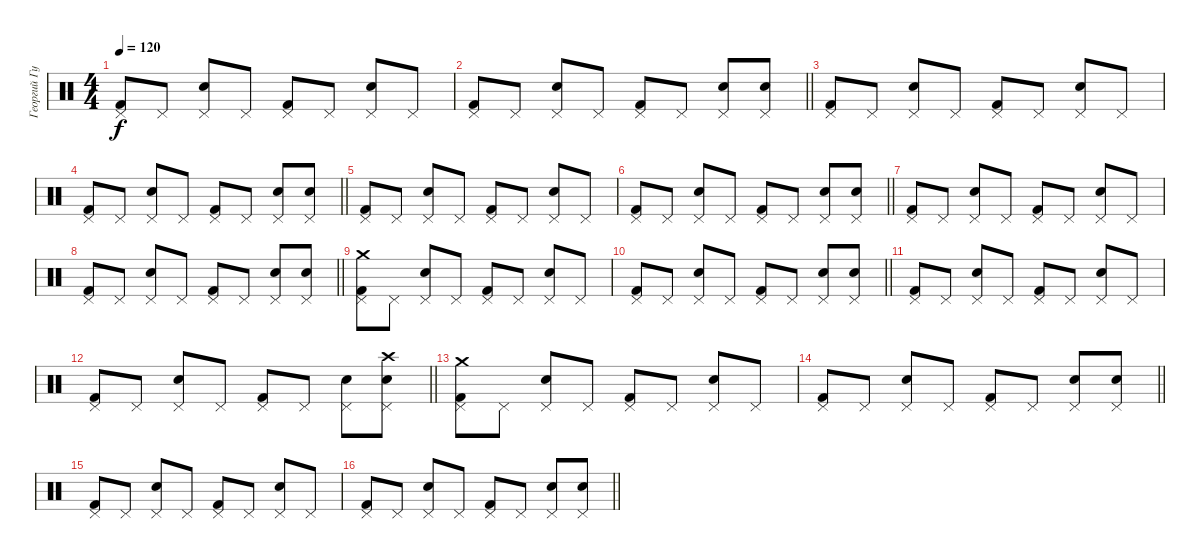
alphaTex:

\track ("Георгий Гурьянов" "Георгий Гу") {instrument percussion}
\staff {score}
\articulation defaults
\ts (4 4)
\tempo 120
\clef neutral
\ks c
("Pedal Hi-Hat (hit)" "Kick (hit) 2").8{dy f} "Pedal Hi-Hat (hit)".8 ("Pedal Hi-Hat (hit)" "Snare (hit) 2").8 "Pedal Hi-Hat (hit)".8 ("Pedal Hi-Hat (hit)" "Kick (hit) 2").8 "Pedal Hi-Hat (hit)".8 ("Pedal Hi-Hat (hit)" "Snare (hit) 2").8 "Pedal Hi-Hat (hit)".8 |
\barLineRight lightlight
("Pedal Hi-Hat (hit)" "Kick (hit) 2").8 "Pedal Hi-Hat (hit)".8 ("Pedal Hi-Hat (hit)" "Snare (hit) 2").8 "Pedal Hi-Hat (hit)".8 ("Pedal Hi-Hat (hit)" "Kick (hit) 2").8 "Pedal Hi-Hat (hit)".8 ("Pedal Hi-Hat (hit)" "Snare (hit) 2").8 ("Pedal Hi-Hat (hit)" "Snare (hit) 2").8 |
("Pedal Hi-Hat (hit)" "Kick (hit) 2").8 "Pedal Hi-Hat (hit)".8 ("Pedal Hi-Hat (hit)" "Snare (hit) 2").8 "Pedal Hi-Hat (hit)".8 ("Pedal Hi-Hat (hit)" "Kick (hit) 2").8 "Pedal Hi-Hat (hit)".8 ("Pedal Hi-Hat (hit)" "Snare (hit) 2").8 "Pedal Hi-Hat (hit)".8 |
\barLineRight lightlight
("Pedal Hi-Hat (hit)" "Kick (hit) 2").8 "Pedal Hi-Hat (hit)".8 ("Pedal Hi-Hat (hit)" "Snare (hit) 2").8 "Pedal Hi-Hat (hit)".8 ("Pedal Hi-Hat (hit)" "Kick (hit) 2").8 "Pedal Hi-Hat (hit)".8 ("Pedal Hi-Hat (hit)" "Snare (hit) 2").8 ("Pedal Hi-Hat (hit)" "Snare (hit) 2").8 |
("Pedal Hi-Hat (hit)" "Kick (hit) 2").8 "Pedal Hi-Hat (hit)".8 ("Pedal Hi-Hat (hit)" "Snare (hit) 2").8 "Pedal Hi-Hat (hit)".8 ("Pedal Hi-Hat (hit)" "Kick (hit) 2").8 "Pedal Hi-Hat (hit)".8 ("Pedal Hi-Hat (hit)" "Snare (hit) 2").8 "Pedal Hi-Hat (hit)".8 |
\barLineRight lightlight
("Pedal Hi-Hat (hit)" "Kick (hit) 2").8 "Pedal Hi-Hat (hit)".8 ("Pedal Hi-Hat (hit)" "Snare (hit) 2").8 "Pedal Hi-Hat (hit)".8 ("Pedal Hi-Hat (hit)" "Kick (hit) 2").8 "Pedal Hi-Hat (hit)".8 ("Pedal Hi-Hat (hit)" "Snare (hit) 2").8 ("Pedal Hi-Hat (hit)" "Snare (hit) 2").8 |
("Pedal Hi-Hat (hit)" "Kick (hit) 2").8 "Pedal Hi-Hat (hit)".8 ("Pedal Hi-Hat (hit)" "Snare (hit) 2").8 "Pedal Hi-Hat (hit)".8 ("Pedal Hi-Hat (hit)" "Kick (hit) 2").8 "Pedal Hi-Hat (hit)".8 ("Pedal Hi-Hat (hit)" "Snare (hit) 2").8 "Pedal Hi-Hat (hit)".8 |
\barLineRight lightlight
("Pedal Hi-Hat (hit)" "Kick (hit) 2").8 "Pedal Hi-Hat (hit)".8 ("Pedal Hi-Hat (hit)" "Snare (hit) 2").8 "Pedal Hi-Hat (hit)".8 ("Pedal Hi-Hat (hit)" "Kick (hit) 2").8 "Pedal Hi-Hat (hit)".8 ("Pedal Hi-Hat (hit)" "Snare (hit) 2").8 ("Pedal Hi-Hat (hit)" "Snare (hit) 2").8 |
("Pedal Hi-Hat (hit)" "Kick (hit) 2" "Crash medium (hit)").8 "Pedal Hi-Hat (hit)".8 ("Pedal Hi-Hat (hit)" "Snare (hit) 2").8 "Pedal Hi-Hat (hit)".8 ("Pedal Hi-Hat (hit)" "Kick (hit) 2").8 "Pedal Hi-Hat (hit)".8 ("Pedal Hi-Hat (hit)" "Snare (hit) 2").8 "Pedal Hi-Hat (hit)".8 |
\barLineRight lightlight
("Pedal Hi-Hat (hit)" "Kick (hit) 2").8 "Pedal Hi-Hat (hit)".8 ("Pedal Hi-Hat (hit)" "Snare (hit) 2").8 "Pedal Hi-Hat (hit)".8 ("Pedal Hi-Hat (hit)" "Kick (hit) 2").8 "Pedal Hi-Hat (hit)".8 ("Pedal Hi-Hat (hit)" "Snare (hit) 2").8 ("Pedal Hi-Hat (hit)" "Snare (hit) 2").8 |
("Pedal Hi-Hat (hit)" "Kick (hit) 2").8 "Pedal Hi-Hat (hit)".8 ("Pedal Hi-Hat (hit)" "Snare (hit) 2").8 "Pedal Hi-Hat (hit)".8 ("Pedal Hi-Hat (hit)" "Kick (hit) 2").8 "Pedal Hi-Hat (hit)".8 ("Pedal Hi-Hat (hit)" "Snare (hit) 2").8 "Pedal Hi-Hat (hit)".8 |
\barLineRight lightlight
("Pedal Hi-Hat (hit)" "Kick (hit) 2").8 "Pedal Hi-Hat (hit)".8 ("Pedal Hi-Hat (hit)" "Snare (hit) 2").8 "Pedal Hi-Hat (hit)".8 ("Pedal Hi-Hat (hit)" "Kick (hit) 2").8 "Pedal Hi-Hat (hit)".8 ("Pedal Hi-Hat (hit)" "Snare (hit) 2").8 ("Pedal Hi-Hat (hit)" "Snare (hit) 2" "Crash high (hit)").8 |
("Pedal Hi-Hat (hit)" "Kick (hit) 2" "Crash medium (hit)").8 "Pedal Hi-Hat (hit)".8 ("Pedal Hi-Hat (hit)" "Snare (hit) 2").8 "Pedal Hi-Hat (hit)".8 ("Pedal Hi-Hat (hit)" "Kick (hit) 2").8 "Pedal Hi-Hat (hit)".8 ("Pedal Hi-Hat (hit)" "Snare (hit) 2").8 "Pedal Hi-Hat (hit)".8 |
\barLineRight lightlight
("Pedal Hi-Hat (hit)" "Kick (hit) 2").8 "Pedal Hi-Hat (hit)".8 ("Pedal Hi-Hat (hit)" "Snare (hit) 2").8 "Pedal Hi-Hat (hit)".8 ("Pedal Hi-Hat (hit)" "Kick (hit) 2").8 "Pedal Hi-Hat (hit)".8 ("Pedal Hi-Hat (hit)" "Snare (hit) 2").8 ("Pedal Hi-Hat (hit)" "Snare (hit) 2").8 |
("Pedal Hi-Hat (hit)" "Kick (hit) 2").8 "Pedal Hi-Hat (hit)".8 ("Pedal Hi-Hat (hit)" "Snare (hit) 2").8 "Pedal Hi-Hat (hit)".8 ("Pedal Hi-Hat (hit)" "Kick (hit) 2").8 "Pedal Hi-Hat (hit)".8 ("Pedal Hi-Hat (hit)" "Snare (hit) 2").8 "Pedal Hi-Hat (hit)".8 |
\barLineRight lightlight
("Pedal Hi-Hat (hit)" "Kick (hit) 2").8 "Pedal Hi-Hat (hit)".8 ("Pedal Hi-Hat (hit)" "Snare (hit) 2").8 "Pedal Hi-Hat (hit)".8 ("Pedal Hi-Hat (hit)" "Kick (hit) 2").8 "Pedal Hi-Hat (hit)".8 ("Pedal Hi-Hat (hit)" "Snare (hit) 2").8 ("Pedal Hi-Hat (hit)" "Snare (hit) 2").8
